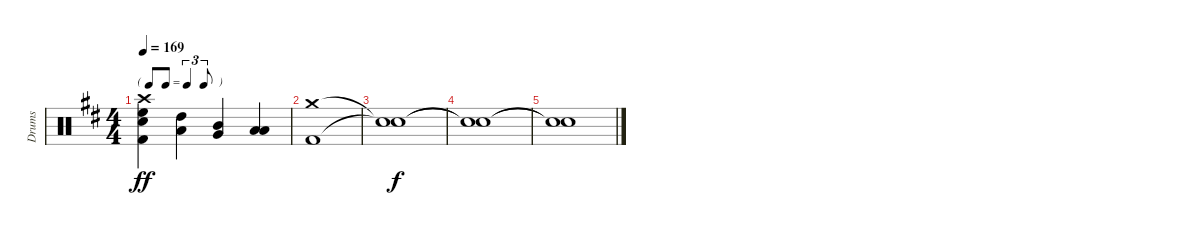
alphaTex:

\track ("Drums" "Drums") {instrument percussion}
\staff {score}
\articulation defaults
\ts (4 4)
\tf triplet8th
\tempo 169
\clef neutral
\ks bminor
("Crash high (hit)" "High Floor Tom (hit)" "Snare (hit) 2" "Kick (hit) 2").4{dy ff} ("High Tom (hit)" "Low Tom (hit)").4 ("Mid Tom (hit)" "Very Low Tom (hit)").4 ("Low Tom (hit)" "Low Floor Tom (hit)").4 |
("Crash medium (hit)" "Kick (hit) 2").1 |
("Snare (hit)"{t} "Snare (hit)"{t}).1{dy f} |
("Snare (hit)"{t} "Snare (hit)"{t}).1 |
("Snare (hit)"{t} "Snare (hit)"{t}).1
